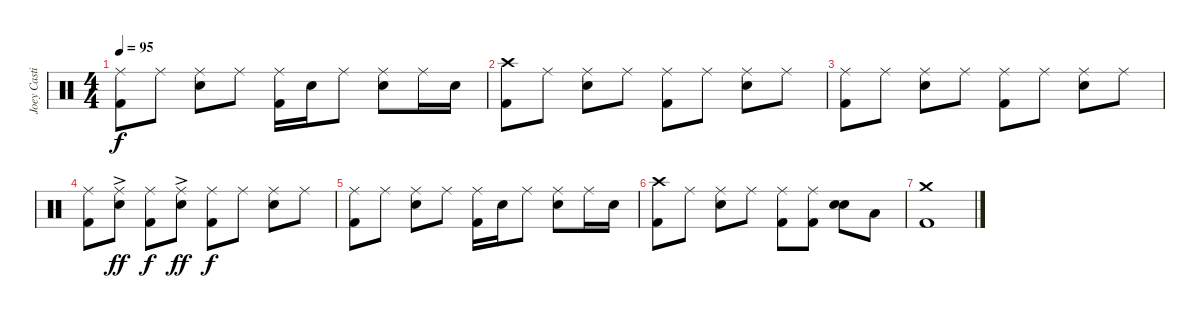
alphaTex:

\track ("Joey Castillo" "Joey Casti") {instrument percussion}
\staff {score}
\articulation defaults
\ts (4 4)
\tempo 95
\clef neutral
\ks c
("Ride (middle)" "Kick (hit) 2").8{dy f} "Ride (middle)".8 ("Ride (middle)" "Snare (hit) 2").8 "Ride (middle)".8 ("Ride (middle)" "Kick (hit) 2").16 "Snare (hit) 2".16 "Ride (middle)".8 ("Ride (middle)" "Snare (hit) 2").8 "Ride (middle)".16 "Snare (hit) 2".16 |
("Crash high (hit)" "Kick (hit) 2").8 "Ride (middle)".8 ("Ride (middle)" "Snare (hit) 2").8 "Ride (middle)".8 ("Ride (middle)" "Kick (hit) 2").8 "Ride (middle)".8 ("Ride (middle)" "Snare (hit) 2").8 "Ride (middle)".8 |
("Ride (middle)" "Kick (hit) 2").8 "Ride (middle)".8 ("Ride (middle)" "Snare (hit) 2").8 "Ride (middle)".8 ("Ride (middle)" "Kick (hit) 2").8 "Ride (middle)".8 ("Ride (middle)" "Snare (hit) 2").8 "Ride (middle)".8 |
("Ride (middle)" "Kick (hit) 2").8 ("Ride (middle)" "Snare (hit) 2"{ac}).8{dy ff} ("Ride (middle)" "Kick (hit) 2").8{dy f} ("Ride (middle)" "Snare (hit) 2"{ac}).8{dy ff} ("Ride (middle)" "Kick (hit) 2").8{dy f} "Ride (middle)".8 ("Ride (middle)" "Snare (hit) 2").8 "Ride (middle)".8 |
("Ride (middle)" "Kick (hit) 2").8 "Ride (middle)".8 ("Ride (middle)" "Snare (hit) 2").8 "Ride (middle)".8 ("Ride (middle)" "Kick (hit) 2").16 "Snare (hit) 2".16 "Ride (middle)".8 ("Ride (middle)" "Snare (hit) 2").8 "Ride (middle)".16 "Snare (hit) 2".16 |
("Crash high (hit)" "Kick (hit) 2").8 "Ride (middle)".8 ("Ride (middle)" "Snare (hit) 2").8 "Ride (middle)".8 ("Ride (middle)" "Kick (hit) 2").8 ("Ride (middle)" "Kick (hit) 2").8 ("Snare (hit) 2" "Snare (hit) 2").8{bd 120} "Low Floor Tom (hit)".8 |
("Crash medium (hit)" "Kick (hit) 2").1
